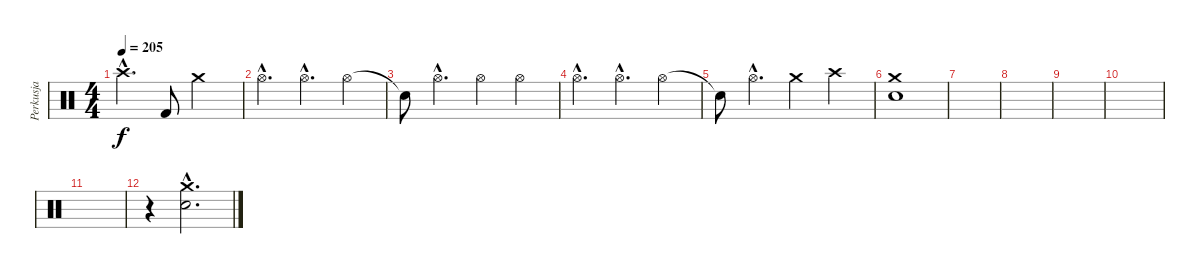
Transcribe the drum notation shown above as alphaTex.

\track ("Perkusja" "Perkusja") {instrument percussion}
\staff {score}
\articulation defaults
\ts (4 4)
\tempo 205
\clef neutral
\ks c "Crash high (hit)"{hac}.4{d dy f} "Kick (hit) 2".8 "Crash medium (hit)".2
|
"Hi-Hat (open)"{hac}.4{d} "Hi-Hat (open)"{hac}.4{d} "Hi-Hat (open)".4 |
"Snare (hit)"{t}.8 "Hi-Hat (open)"{hac}.4{d} "Hi-Hat (open)".4 "Hi-Hat (open)".4 |
"Hi-Hat (open)"{hac}.4{d} "Hi-Hat (open)"{hac}.4{d} "Hi-Hat (open)".4 |
"Snare (hit)"{t}.8 "Hi-Hat (open)"{hac}.4{d} "Crash medium (hit)".4 "Crash high (hit)".4 |
("Crash medium (hit)" "Snare (hit) 2").1 |
|
|
|
|
|
r.4 ("Crash medium (hit)"{hac} "Snare (hit) 2"{hac}).2{d}
